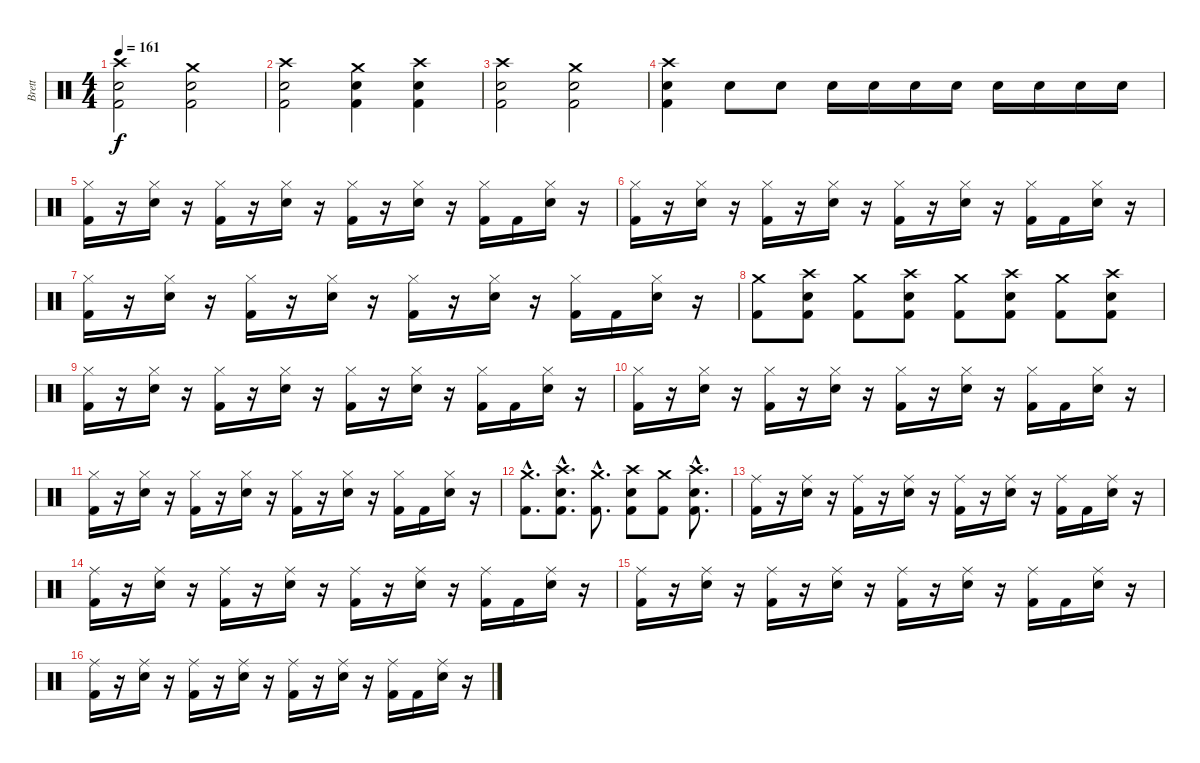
\track ("Brett" "Brett") {instrument percussion}
\staff {score}
\articulation defaults
\ts (4 4)
\tempo 161
\clef neutral
\ks c
("Crash high (hit)" "Electric Snare (hit)" "Kick (hit) 2").2{dy f} ("Crash medium (hit)" "Electric Snare (hit)" "Kick (hit) 2").2 |
("Crash high (hit)" "Electric Snare (hit)" "Kick (hit) 2").2 ("Crash medium (hit)" "Electric Snare (hit)" "Kick (hit) 2").4 ("Crash high (hit)" "Electric Snare (hit)" "Kick (hit) 2").4 |
("Crash high (hit)" "Electric Snare (hit)" "Kick (hit) 2").2 ("Crash medium (hit)" "Electric Snare (hit)" "Kick (hit) 2").2 |
("Crash high (hit)" "Electric Snare (hit)" "Kick (hit) 2").4 "Electric Snare (hit)".8 "Electric Snare (hit)".8 "Electric Snare (hit)".16 "Electric Snare (hit)".16 "Electric Snare (hit)".16 "Electric Snare (hit)".16 "Electric Snare (hit)".16 "Electric Snare (hit)".16 "Electric Snare (hit)".16 "Electric Snare (hit)".16 |
("Hi-Hat (closed)" "Kick (hit) 2").16 r.16 ("Hi-Hat (closed)" "Electric Snare (hit)").16 r.16 ("Hi-Hat (closed)" "Kick (hit) 2").16 r.16 ("Hi-Hat (closed)" "Electric Snare (hit)").16 r.16 ("Hi-Hat (closed)" "Kick (hit) 2").16 r.16 ("Hi-Hat (closed)" "Electric Snare (hit)").16 r.16 ("Hi-Hat (closed)" "Kick (hit) 2").16 "Kick (hit) 2".16 ("Hi-Hat (closed)" "Electric Snare (hit)").16 r.16 |
("Hi-Hat (closed)" "Kick (hit) 2").16 r.16 ("Hi-Hat (closed)" "Electric Snare (hit)").16 r.16 ("Hi-Hat (closed)" "Kick (hit) 2").16 r.16 ("Hi-Hat (closed)" "Electric Snare (hit)").16 r.16 ("Hi-Hat (closed)" "Kick (hit) 2").16 r.16 ("Hi-Hat (closed)" "Electric Snare (hit)").16 r.16 ("Hi-Hat (closed)" "Kick (hit) 2").16 "Kick (hit) 2".16 ("Hi-Hat (closed)" "Electric Snare (hit)").16 r.16 |
("Hi-Hat (closed)" "Kick (hit) 2").16 r.16 ("Hi-Hat (closed)" "Electric Snare (hit)").16 r.16 ("Hi-Hat (closed)" "Kick (hit) 2").16 r.16 ("Hi-Hat (closed)" "Electric Snare (hit)").16 r.16 ("Hi-Hat (closed)" "Kick (hit) 2").16 r.16 ("Hi-Hat (closed)" "Electric Snare (hit)").16 r.16 ("Hi-Hat (closed)" "Kick (hit) 2").16 "Kick (hit) 2".16 ("Hi-Hat (closed)" "Electric Snare (hit)").16 r.16 |
("Crash medium (hit)" "Kick (hit) 2").8 ("Crash high (hit)" "Electric Snare (hit)" "Kick (hit) 2").8 ("Crash medium (hit)" "Kick (hit) 2").8 ("Crash high (hit)" "Electric Snare (hit)" "Kick (hit) 2").8 ("Crash medium (hit)" "Kick (hit) 2").8 ("Crash high (hit)" "Electric Snare (hit)" "Kick (hit) 2").8 ("Crash medium (hit)" "Kick (hit) 2").8 ("Crash high (hit)" "Electric Snare (hit)" "Kick (hit) 2").8 |
("Hi-Hat (closed)" "Kick (hit) 2").16 r.16 ("Hi-Hat (closed)" "Electric Snare (hit)").16 r.16 ("Hi-Hat (closed)" "Kick (hit) 2").16 r.16 ("Hi-Hat (closed)" "Electric Snare (hit)").16 r.16 ("Hi-Hat (closed)" "Kick (hit) 2").16 r.16 ("Hi-Hat (closed)" "Electric Snare (hit)").16 r.16 ("Hi-Hat (closed)" "Kick (hit) 2").16 "Kick (hit) 2".16 ("Hi-Hat (closed)" "Electric Snare (hit)").16 r.16 |
("Hi-Hat (closed)" "Kick (hit) 2").16 r.16 ("Hi-Hat (closed)" "Electric Snare (hit)").16 r.16 ("Hi-Hat (closed)" "Kick (hit) 2").16 r.16 ("Hi-Hat (closed)" "Electric Snare (hit)").16 r.16 ("Hi-Hat (closed)" "Kick (hit) 2").16 r.16 ("Hi-Hat (closed)" "Electric Snare (hit)").16 r.16 ("Hi-Hat (closed)" "Kick (hit) 2").16 "Kick (hit) 2".16 ("Hi-Hat (closed)" "Electric Snare (hit)").16 r.16 |
("Hi-Hat (closed)" "Kick (hit) 2").16 r.16 ("Hi-Hat (closed)" "Electric Snare (hit)").16 r.16 ("Hi-Hat (closed)" "Kick (hit) 2").16 r.16 ("Hi-Hat (closed)" "Electric Snare (hit)").16 r.16 ("Hi-Hat (closed)" "Kick (hit) 2").16 r.16 ("Hi-Hat (closed)" "Electric Snare (hit)").16 r.16 ("Hi-Hat (closed)" "Kick (hit) 2").16 "Kick (hit) 2".16 ("Hi-Hat (closed)" "Electric Snare (hit)").16 r.16 |
("Crash medium (hit)"{hac} "Kick (hit) 2"{hac}).8{d} ("Crash high (hit)"{hac} "Electric Snare (hit)"{hac} "Kick (hit) 2"{hac}).8{d} ("Crash medium (hit)"{hac} "Kick (hit) 2"{hac}).8{d} ("Crash high (hit)" "Electric Snare (hit)" "Kick (hit) 2").8 ("Crash medium (hit)" "Kick (hit) 2").8 ("Crash high (hit)"{hac} "Electric Snare (hit)"{hac} "Kick (hit) 2"{hac}).8{d} |
("Ride (middle)" "Kick (hit) 2").16 r.16 ("Ride (middle)" "Electric Snare (hit)").16 r.16 ("Ride (middle)" "Kick (hit) 2").16 r.16 ("Ride (middle)" "Electric Snare (hit)").16 r.16 ("Ride (middle)" "Kick (hit) 2").16 r.16 ("Ride (middle)" "Electric Snare (hit)").16 r.16 ("Ride (middle)" "Kick (hit) 2").16 "Kick (hit) 2".16 ("Ride (middle)" "Electric Snare (hit)").16 r.16 |
("Ride (middle)" "Kick (hit) 2").16 r.16 ("Ride (middle)" "Electric Snare (hit)").16 r.16 ("Ride (middle)" "Kick (hit) 2").16 r.16 ("Ride (middle)" "Electric Snare (hit)").16 r.16 ("Ride (middle)" "Kick (hit) 2").16 r.16 ("Ride (middle)" "Electric Snare (hit)").16 r.16 ("Ride (middle)" "Kick (hit) 2").16 "Kick (hit) 2".16 ("Ride (middle)" "Electric Snare (hit)").16 r.16 |
("Ride (middle)" "Kick (hit) 2").16 r.16 ("Ride (middle)" "Electric Snare (hit)").16 r.16 ("Ride (middle)" "Kick (hit) 2").16 r.16 ("Ride (middle)" "Electric Snare (hit)").16 r.16 ("Ride (middle)" "Kick (hit) 2").16 r.16 ("Ride (middle)" "Electric Snare (hit)").16 r.16 ("Ride (middle)" "Kick (hit) 2").16 "Kick (hit) 2".16 ("Ride (middle)" "Electric Snare (hit)").16 r.16 |
("Ride (middle)" "Kick (hit) 2").16 r.16 ("Ride (middle)" "Electric Snare (hit)").16 r.16 ("Ride (middle)" "Kick (hit) 2").16 r.16 ("Ride (middle)" "Electric Snare (hit)").16 r.16 ("Ride (middle)" "Kick (hit) 2").16 r.16 ("Ride (middle)" "Electric Snare (hit)").16 r.16 ("Ride (middle)" "Kick (hit) 2").16 "Kick (hit) 2".16 ("Ride (middle)" "Electric Snare (hit)").16 r.16
